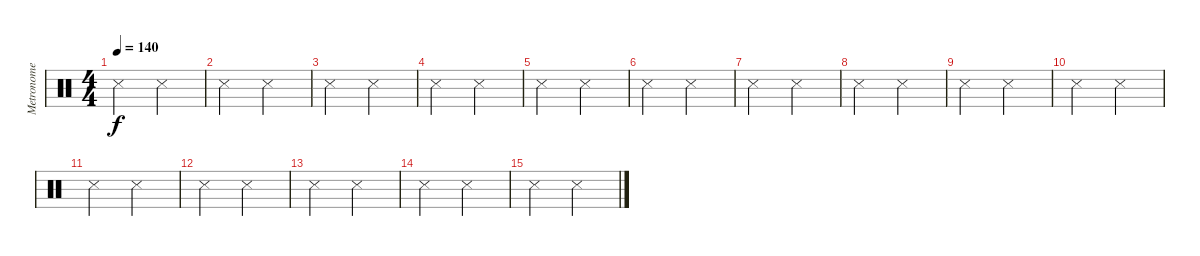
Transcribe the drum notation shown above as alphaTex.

\track ("Metronome" "Metronome") {instrument percussion}
\staff {score}
\articulation defaults
\ts (4 4)
\tempo 140
\clef neutral
\ks c "Snare (side stick) 3".2{dy f} "Snare (side stick) 3".2
|
"Snare (side stick) 3".2 "Snare (side stick) 3".2 |
"Snare (side stick) 3".2 "Snare (side stick) 3".2 |
"Snare (side stick) 3".2 "Snare (side stick) 3".2 |
"Snare (side stick) 3".2 "Snare (side stick) 3".2 |
"Snare (side stick) 3".2 "Snare (side stick) 3".2 |
"Snare (side stick) 3".2 "Snare (side stick) 3".2 |
"Snare (side stick) 3".2 "Snare (side stick) 3".2 |
"Snare (side stick) 3".2 "Snare (side stick) 3".2 |
"Snare (side stick) 3".2 "Snare (side stick) 3".2 |
"Snare (side stick) 3".2 "Snare (side stick) 3".2 |
"Snare (side stick) 3".2 "Snare (side stick) 3".2 |
"Snare (side stick) 3".2 "Snare (side stick) 3".2 |
"Snare (side stick) 3".2 "Snare (side stick) 3".2 |
"Snare (side stick) 3".2 "Snare (side stick) 3".2
